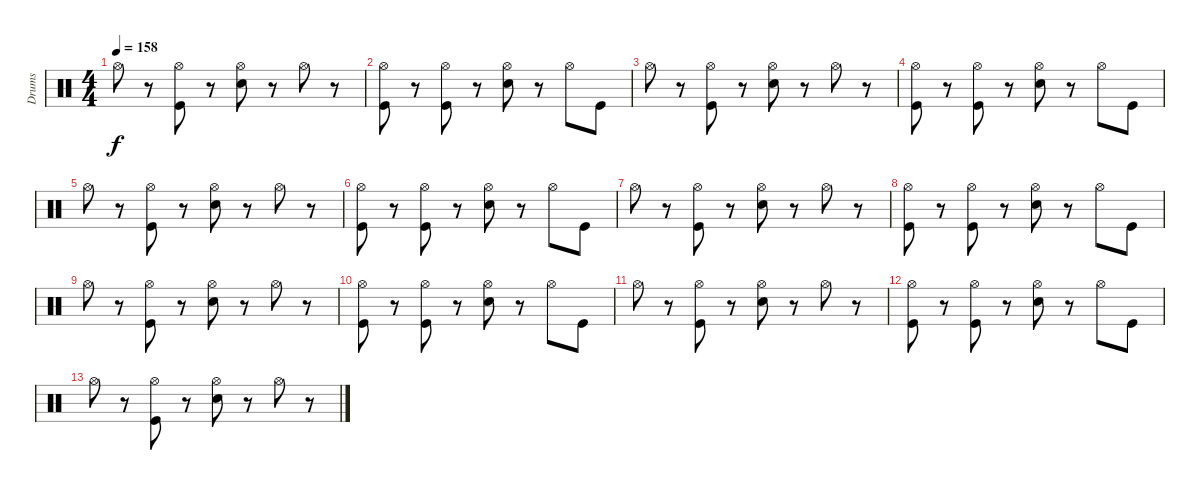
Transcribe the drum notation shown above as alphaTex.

\track ("Drums" "Drums") {instrument percussion}
\staff {score}
\articulation defaults
\ts (4 4)
\tempo 158
\clef neutral
\ks c "Hi-Hat (open)".8{dy f}
r.8 ("Hi-Hat (open)" "Kick (hit)").8 r.8 ("Hi-Hat (open)" "Snare (hit) 2").8 r.8 "Hi-Hat (open)".8 r.8 |
("Hi-Hat (open)" "Kick (hit)").8 r.8 ("Hi-Hat (open)" "Kick (hit)").8 r.8 ("Hi-Hat (open)" "Snare (hit) 2").8 r.8 "Hi-Hat (open)".8 "Kick (hit)".8 |
"Hi-Hat (open)".8 r.8 ("Hi-Hat (open)" "Kick (hit)").8 r.8 ("Hi-Hat (open)" "Snare (hit) 2").8 r.8 "Hi-Hat (open)".8 r.8 |
("Hi-Hat (open)" "Kick (hit)").8 r.8 ("Hi-Hat (open)" "Kick (hit)").8 r.8 ("Hi-Hat (open)" "Snare (hit) 2").8 r.8 "Hi-Hat (open)".8 "Kick (hit)".8 |
"Hi-Hat (open)".8 r.8 ("Hi-Hat (open)" "Kick (hit)").8 r.8 ("Hi-Hat (open)" "Snare (hit) 2").8 r.8 "Hi-Hat (open)".8 r.8 |
("Hi-Hat (open)" "Kick (hit)").8 r.8 ("Hi-Hat (open)" "Kick (hit)").8 r.8 ("Hi-Hat (open)" "Snare (hit) 2").8 r.8 "Hi-Hat (open)".8 "Kick (hit)".8 |
"Hi-Hat (open)".8 r.8 ("Hi-Hat (open)" "Kick (hit)").8 r.8 ("Hi-Hat (open)" "Snare (hit) 2").8 r.8 "Hi-Hat (open)".8 r.8 |
("Hi-Hat (open)" "Kick (hit)").8 r.8 ("Hi-Hat (open)" "Kick (hit)").8 r.8 ("Hi-Hat (open)" "Snare (hit) 2").8 r.8 "Hi-Hat (open)".8 "Kick (hit)".8 |
"Hi-Hat (open)".8 r.8 ("Hi-Hat (open)" "Kick (hit)").8 r.8 ("Hi-Hat (open)" "Snare (hit) 2").8 r.8 "Hi-Hat (open)".8 r.8 |
("Hi-Hat (open)" "Kick (hit)").8 r.8 ("Hi-Hat (open)" "Kick (hit)").8 r.8 ("Hi-Hat (open)" "Snare (hit) 2").8 r.8 "Hi-Hat (open)".8 "Kick (hit)".8 |
"Hi-Hat (open)".8 r.8 ("Hi-Hat (open)" "Kick (hit)").8 r.8 ("Hi-Hat (open)" "Snare (hit) 2").8 r.8 "Hi-Hat (open)".8 r.8 |
("Hi-Hat (open)" "Kick (hit)").8{volume 11} r.8 ("Hi-Hat (open)" "Kick (hit)").8 r.8 ("Hi-Hat (open)" "Snare (hit) 2").8{volume 8} r.8 "Hi-Hat (open)".8 "Kick (hit)".8{volume 7} |
"Hi-Hat (open)".8 r.8{volume 6} ("Hi-Hat (open)" "Kick (hit)").8 r.8{volume 5} ("Hi-Hat (open)" "Snare (hit) 2").8 r.8{volume 4} "Hi-Hat (open)".8{volume 3} r.8{volume 2}
